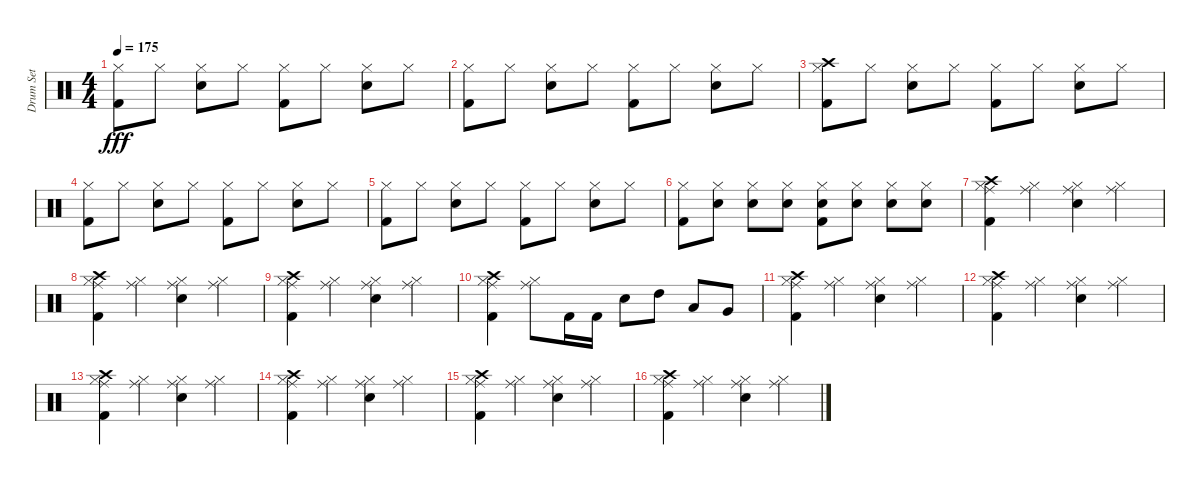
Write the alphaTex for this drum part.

\track ("Drum Set" "Drum Set") {instrument percussion}
\staff {score}
\articulation defaults
\ts (4 4)
\tempo 175
\clef neutral
\ks c
("Kick (hit) 2" "Hi-Hat (closed)").8{dy fff} "Hi-Hat (closed)".8 ("Electric Snare (hit)" "Hi-Hat (closed)").8 "Hi-Hat (closed)".8 ("Kick (hit) 2" "Hi-Hat (closed)").8 "Hi-Hat (closed)".8 ("Electric Snare (hit)" "Hi-Hat (closed)").8 "Hi-Hat (closed)".8 |
("Kick (hit) 2" "Hi-Hat (closed)").8 "Hi-Hat (closed)".8 ("Electric Snare (hit)" "Hi-Hat (closed)").8 "Hi-Hat (closed)".8 ("Kick (hit) 2" "Hi-Hat (closed)").8 "Hi-Hat (closed)".8 ("Electric Snare (hit)" "Hi-Hat (closed)").8 "Hi-Hat (closed)".8 |
("Kick (hit) 2" "Crash high (hit)" "Hi-Hat (closed)").8 "Hi-Hat (closed)".8 ("Electric Snare (hit)" "Hi-Hat (closed)").8 "Hi-Hat (closed)".8 ("Kick (hit) 2" "Hi-Hat (closed)").8 "Hi-Hat (closed)".8 ("Electric Snare (hit)" "Hi-Hat (closed)").8 "Hi-Hat (closed)".8 |
("Kick (hit) 2" "Hi-Hat (closed)").8 "Hi-Hat (closed)".8 ("Electric Snare (hit)" "Hi-Hat (closed)").8 "Hi-Hat (closed)".8 ("Kick (hit) 2" "Hi-Hat (closed)").8 "Hi-Hat (closed)".8 ("Electric Snare (hit)" "Hi-Hat (closed)").8 "Hi-Hat (closed)".8 |
("Kick (hit) 2" "Hi-Hat (closed)").8 "Hi-Hat (closed)".8 ("Electric Snare (hit)" "Hi-Hat (closed)").8 "Hi-Hat (closed)".8 ("Kick (hit) 2" "Hi-Hat (closed)").8 "Hi-Hat (closed)".8 ("Electric Snare (hit)" "Hi-Hat (closed)").8 "Hi-Hat (closed)".8 |
("Kick (hit) 2" "Hi-Hat (closed)").8 ("Hi-Hat (closed)" "Electric Snare (hit)").8 ("Electric Snare (hit)" "Hi-Hat (closed)").8 ("Electric Snare (hit)" "Hi-Hat (closed)").8 ("Kick (hit) 2" "Electric Snare (hit)" "Hi-Hat (closed)").8 ("Electric Snare (hit)" "Hi-Hat (closed)").8 ("Hi-Hat (closed)" "Electric Snare (hit)").8 ("Electric Snare (hit)" "Hi-Hat (closed)").8 |
("Kick (hit) 2" "Ride (middle)" "Hi-Hat (closed)" "Crash high (hit)").4 ("Ride (middle)" "Hi-Hat (closed)").4 ("Electric Snare (hit)" "Hi-Hat (closed)" "Ride (middle)").4 ("Ride (middle)" "Hi-Hat (closed)").4 |
("Kick (hit) 2" "Hi-Hat (closed)" "Ride (middle)" "Crash high (hit)").4 ("Ride (middle)" "Hi-Hat (closed)").4 ("Electric Snare (hit)" "Hi-Hat (closed)" "Ride (middle)").4 ("Ride (middle)" "Hi-Hat (closed)").4 |
("Kick (hit) 2" "Crash high (hit)" "Hi-Hat (closed)" "Ride (middle)").4 ("Hi-Hat (closed)" "Ride (middle)").4 ("Electric Snare (hit)" "Hi-Hat (closed)" "Ride (middle)").4 ("Hi-Hat (closed)" "Ride (middle)").4 |
("Kick (hit) 2" "Hi-Hat (closed)" "Ride (middle)" "Crash high (hit)").4 ("Ride (middle)" "Hi-Hat (closed)").8 "Kick (hit) 2".16 "Kick (hit) 2".16 "Electric Snare (hit)".8 "High Tom (hit)".8 "Low Tom (hit)".8 "Very Low Tom (hit)".8 |
("Kick (hit) 2" "Ride (middle)" "Hi-Hat (closed)" "Crash high (hit)").4 ("Hi-Hat (closed)" "Ride (middle)").4 ("Electric Snare (hit)" "Hi-Hat (closed)" "Ride (middle)").4 ("Hi-Hat (closed)" "Ride (middle)").4 |
("Kick (hit) 2" "Hi-Hat (closed)" "Crash high (hit)" "Ride (middle)").4 ("Hi-Hat (closed)" "Ride (middle)").4 ("Electric Snare (hit)" "Ride (middle)" "Hi-Hat (closed)").4 ("Hi-Hat (closed)" "Ride (middle)").4 |
("Kick (hit) 2" "Ride (middle)" "Hi-Hat (closed)" "Crash high (hit)").4 ("Hi-Hat (closed)" "Ride (middle)").4 ("Electric Snare (hit)" "Hi-Hat (closed)" "Ride (middle)").4 ("Hi-Hat (closed)" "Ride (middle)").4 |
("Kick (hit) 2" "Crash high (hit)" "Hi-Hat (closed)" "Ride (middle)").4 ("Ride (middle)" "Hi-Hat (closed)").4 ("Electric Snare (hit)" "Hi-Hat (closed)" "Ride (middle)").4 ("Ride (middle)" "Hi-Hat (closed)").4 |
("Kick (hit) 2" "Ride (middle)" "Crash high (hit)" "Hi-Hat (closed)").4 ("Ride (middle)" "Hi-Hat (closed)").4 ("Electric Snare (hit)" "Hi-Hat (closed)" "Ride (middle)").4 ("Hi-Hat (closed)" "Ride (middle)").4 |
("Kick (hit) 2" "Hi-Hat (closed)" "Crash high (hit)" "Ride (middle)").4 ("Hi-Hat (closed)" "Ride (middle)").4 ("Electric Snare (hit)" "Hi-Hat (closed)" "Ride (middle)").4 ("Hi-Hat (closed)" "Ride (middle)").4
